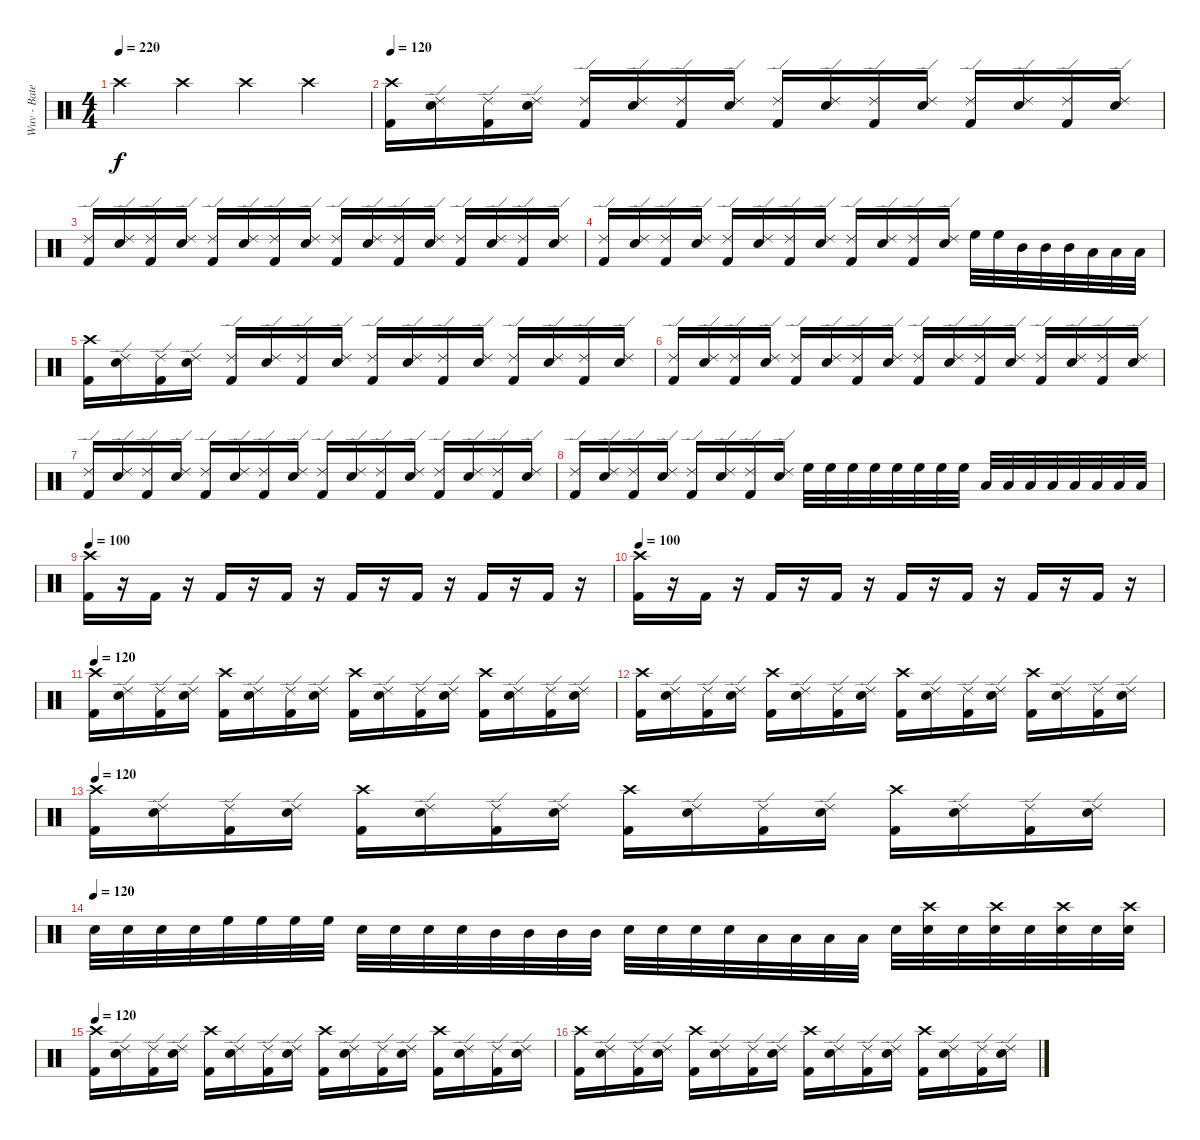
\track ("Wuv - Bateria" "Wuv - Bate") {instrument percussion}
\staff {score}
\articulation defaults
\ts (4 4)
\tempo 220
\clef neutral
\ks c "Crash high (hit)".4{dy f} "Crash high (hit)".4 "Crash high (hit)".4 "Crash high (hit)".4
|
\tempo 120
("Crash high (hit)" "Kick (hit) 2").16 ("Ride (edge) 2" "Snare (hit) 2").16 ("Ride (edge) 2" "Kick (hit) 2").16 ("Ride (edge) 2" "Snare (hit) 2").16 ("Ride (edge) 2" "Kick (hit) 2").16 ("Ride (edge) 2" "Snare (hit) 2").16 ("Ride (edge) 2" "Kick (hit) 2").16 ("Ride (edge) 2" "Snare (hit) 2").16 ("Ride (edge) 2" "Kick (hit) 2").16 ("Ride (edge) 2" "Snare (hit) 2").16 ("Ride (edge) 2" "Kick (hit) 2").16 ("Ride (edge) 2" "Snare (hit) 2").16 ("Ride (edge) 2" "Kick (hit) 2").16 ("Ride (edge) 2" "Snare (hit) 2").16 ("Ride (edge) 2" "Kick (hit) 2").16 ("Ride (edge) 2" "Snare (hit) 2").16 |
("Ride (edge) 2" "Kick (hit) 2").16 ("Ride (edge) 2" "Snare (hit) 2").16 ("Ride (edge) 2" "Kick (hit) 2").16 ("Ride (edge) 2" "Snare (hit) 2").16 ("Ride (edge) 2" "Kick (hit) 2").16 ("Ride (edge) 2" "Snare (hit) 2").16 ("Ride (edge) 2" "Kick (hit) 2").16 ("Ride (edge) 2" "Snare (hit) 2").16 ("Ride (edge) 2" "Kick (hit) 2").16 ("Ride (edge) 2" "Snare (hit) 2").16 ("Ride (edge) 2" "Kick (hit) 2").16 ("Ride (edge) 2" "Snare (hit) 2").16 ("Ride (edge) 2" "Kick (hit) 2").16 ("Ride (edge) 2" "Snare (hit) 2").16 ("Ride (edge) 2" "Kick (hit) 2").16 ("Ride (edge) 2" "Snare (hit) 2").16 |
("Ride (edge) 2" "Kick (hit) 2").16 ("Ride (edge) 2" "Snare (hit) 2").16 ("Ride (edge) 2" "Kick (hit) 2").16 ("Ride (edge) 2" "Snare (hit) 2").16 ("Ride (edge) 2" "Kick (hit) 2").16 ("Ride (edge) 2" "Snare (hit) 2").16 ("Ride (edge) 2" "Kick (hit) 2").16 ("Ride (edge) 2" "Snare (hit) 2").16 ("Ride (edge) 2" "Kick (hit) 2").16 ("Ride (edge) 2" "Snare (hit) 2").16 ("Ride (edge) 2" "Kick (hit) 2").16 ("Ride (edge) 2" "Snare (hit) 2").16 "High Floor Tom (hit)".32 "High Floor Tom (hit)".32 "Mid Tom (hit)".32 "Mid Tom (hit)".32 "Mid Tom (hit)".32 "Low Tom (hit)".32 "Low Tom (hit)".32 "Low Tom (hit)".32 |
("Crash high (hit)" "Kick (hit) 2").16 ("Ride (edge) 2" "Snare (hit) 2").16 ("Ride (edge) 2" "Kick (hit) 2").16 ("Ride (edge) 2" "Snare (hit) 2").16 ("Ride (edge) 2" "Kick (hit) 2").16 ("Ride (edge) 2" "Snare (hit) 2").16 ("Ride (edge) 2" "Kick (hit) 2").16 ("Ride (edge) 2" "Snare (hit) 2").16 ("Ride (edge) 2" "Kick (hit) 2").16 ("Ride (edge) 2" "Snare (hit) 2").16 ("Ride (edge) 2" "Kick (hit) 2").16 ("Ride (edge) 2" "Snare (hit) 2").16 ("Ride (edge) 2" "Kick (hit) 2").16 ("Ride (edge) 2" "Snare (hit) 2").16 ("Ride (edge) 2" "Kick (hit) 2").16 ("Ride (edge) 2" "Snare (hit) 2").16 |
("Ride (edge) 2" "Kick (hit) 2").16 ("Ride (edge) 2" "Snare (hit) 2").16 ("Ride (edge) 2" "Kick (hit) 2").16 ("Ride (edge) 2" "Snare (hit) 2").16 ("Ride (edge) 2" "Kick (hit) 2").16 ("Ride (edge) 2" "Snare (hit) 2").16 ("Ride (edge) 2" "Kick (hit) 2").16 ("Ride (edge) 2" "Snare (hit) 2").16 ("Ride (edge) 2" "Kick (hit) 2").16 ("Ride (edge) 2" "Snare (hit) 2").16 ("Ride (edge) 2" "Kick (hit) 2").16 ("Ride (edge) 2" "Snare (hit) 2").16 ("Ride (edge) 2" "Kick (hit) 2").16 ("Ride (edge) 2" "Snare (hit) 2").16 ("Ride (edge) 2" "Kick (hit) 2").16 ("Ride (edge) 2" "Snare (hit) 2").16 |
("Ride (edge) 2" "Kick (hit) 2").16 ("Ride (edge) 2" "Snare (hit) 2").16 ("Ride (edge) 2" "Kick (hit) 2").16 ("Ride (edge) 2" "Snare (hit) 2").16 ("Ride (edge) 2" "Kick (hit) 2").16 ("Ride (edge) 2" "Snare (hit) 2").16 ("Ride (edge) 2" "Kick (hit) 2").16 ("Ride (edge) 2" "Snare (hit) 2").16 ("Ride (edge) 2" "Kick (hit) 2").16 ("Ride (edge) 2" "Snare (hit) 2").16 ("Ride (edge) 2" "Kick (hit) 2").16 ("Ride (edge) 2" "Snare (hit) 2").16 ("Ride (edge) 2" "Kick (hit) 2").16 ("Ride (edge) 2" "Snare (hit) 2").16 ("Ride (edge) 2" "Kick (hit) 2").16 ("Ride (edge) 2" "Snare (hit) 2").16 |
("Ride (edge) 2" "Kick (hit) 2").16 ("Ride (edge) 2" "Snare (hit) 2").16 ("Ride (edge) 2" "Kick (hit) 2").16 ("Ride (edge) 2" "Snare (hit) 2").16 ("Ride (edge) 2" "Kick (hit) 2").16 ("Ride (edge) 2" "Snare (hit) 2").16 ("Ride (edge) 2" "Kick (hit) 2").16 ("Ride (edge) 2" "Snare (hit) 2").16 "High Floor Tom (hit)".32 "High Floor Tom (hit)".32 "High Floor Tom (hit)".32 "High Floor Tom (hit)".32 "High Floor Tom (hit)".32 "High Floor Tom (hit)".32 "High Floor Tom (hit)".32 "High Floor Tom (hit)".32 "Low Tom (hit)".32 "Low Tom (hit)".32 "Low Tom (hit)".32 "Low Tom (hit)".32 "Low Tom (hit)".32 "Low Tom (hit)".32 "Low Tom (hit)".32 "Low Tom (hit)".32 |
\tempo 100
("Crash high (hit)" "Kick (hit) 2").16 r.16 "Kick (hit) 2".16 r.16 "Kick (hit) 2".16 r.16 "Kick (hit) 2".16 r.16 "Kick (hit) 2".16 r.16 "Kick (hit) 2".16 r.16 "Kick (hit) 2".16 r.16 "Kick (hit) 2".16 r.16 |
\tempo 100
("Crash high (hit)" "Kick (hit) 2").16 r.16 "Kick (hit) 2".16 r.16 "Kick (hit) 2".16 r.16 "Kick (hit) 2".16 r.16 "Kick (hit) 2".16 r.16 "Kick (hit) 2".16 r.16 "Kick (hit) 2".16 r.16 "Kick (hit) 2".16 r.16 |
\tempo 120
("Crash high (hit)" "Kick (hit) 2").16 ("Ride (edge) 2" "Snare (hit) 2").16 ("Ride (edge) 2" "Kick (hit) 2").16 ("Ride (edge) 2" "Snare (hit) 2").16 ("Crash high (hit)" "Kick (hit) 2").16 ("Ride (edge) 2" "Snare (hit) 2").16 ("Ride (edge) 2" "Kick (hit) 2").16 ("Ride (edge) 2" "Snare (hit) 2").16 ("Crash high (hit)" "Kick (hit) 2").16 ("Ride (edge) 2" "Snare (hit) 2").16 ("Ride (edge) 2" "Kick (hit) 2").16 ("Ride (edge) 2" "Snare (hit) 2").16 ("Crash high (hit)" "Kick (hit) 2").16 ("Ride (edge) 2" "Snare (hit) 2").16 ("Ride (edge) 2" "Kick (hit) 2").16 ("Ride (edge) 2" "Snare (hit) 2").16 |
("Crash high (hit)" "Kick (hit) 2").16 ("Ride (edge) 2" "Snare (hit) 2").16 ("Ride (edge) 2" "Kick (hit) 2").16 ("Ride (edge) 2" "Snare (hit) 2").16 ("Crash high (hit)" "Kick (hit) 2").16 ("Ride (edge) 2" "Snare (hit) 2").16 ("Ride (edge) 2" "Kick (hit) 2").16 ("Ride (edge) 2" "Snare (hit) 2").16 ("Crash high (hit)" "Kick (hit) 2").16 ("Ride (edge) 2" "Snare (hit) 2").16 ("Ride (edge) 2" "Kick (hit) 2").16 ("Ride (edge) 2" "Snare (hit) 2").16 ("Crash high (hit)" "Kick (hit) 2").16 ("Ride (edge) 2" "Snare (hit) 2").16 ("Ride (edge) 2" "Kick (hit) 2").16 ("Ride (edge) 2" "Snare (hit) 2").16 |
\tempo 120
("Crash high (hit)" "Kick (hit) 2").16 ("Ride (edge) 2" "Snare (hit) 2").16 ("Ride (edge) 2" "Kick (hit) 2").16 ("Ride (edge) 2" "Snare (hit) 2").16 ("Crash high (hit)" "Kick (hit) 2").16 ("Ride (edge) 2" "Snare (hit) 2").16 ("Ride (edge) 2" "Kick (hit) 2").16 ("Ride (edge) 2" "Snare (hit) 2").16 ("Crash high (hit)" "Kick (hit) 2").16 ("Ride (edge) 2" "Snare (hit) 2").16 ("Ride (edge) 2" "Kick (hit) 2").16 ("Ride (edge) 2" "Snare (hit) 2").16 ("Crash high (hit)" "Kick (hit) 2").16 ("Ride (edge) 2" "Snare (hit) 2").16 ("Ride (edge) 2" "Kick (hit) 2").16 ("Ride (edge) 2" "Snare (hit) 2").16 |
\tempo (120)
"Snare (hit) 2".32 "Snare (hit) 2".32 "Snare (hit) 2".32 "Snare (hit) 2".32 "High Floor Tom (hit)".32 "High Floor Tom (hit)".32 "High Floor Tom (hit)".32 "High Floor Tom (hit)".32 "Snare (hit) 2".32 "Snare (hit) 2".32 "Snare (hit) 2".32 "Snare (hit) 2".32 "Mid Tom (hit)".32 "Mid Tom (hit)".32 "Mid Tom (hit)".32 "Mid Tom (hit)".32 "Snare (hit) 2".32 "Snare (hit) 2".32 "Snare (hit) 2".32 "Snare (hit) 2".32 "Low Tom (hit)".32 "Low Tom (hit)".32 "Low Tom (hit)".32 "Low Tom (hit)".32 "Snare (hit) 2".32 ("Crash high (hit)" "Snare (hit) 2").32 "Snare (hit) 2".32 ("Crash high (hit)" "Snare (hit) 2").32 "Snare (hit) 2".32 ("Crash high (hit)" "Snare (hit) 2").32 "Snare (hit) 2".32 ("Crash high (hit)" "Snare (hit) 2").32 |
\tempo 120
("Crash high (hit)" "Kick (hit) 2").16 ("Ride (edge) 2" "Snare (hit) 2").16 ("Ride (edge) 2" "Kick (hit) 2").16 ("Ride (edge) 2" "Snare (hit) 2").16 ("Crash high (hit)" "Kick (hit) 2").16 ("Ride (edge) 2" "Snare (hit) 2").16 ("Ride (edge) 2" "Kick (hit) 2").16 ("Ride (edge) 2" "Snare (hit) 2").16 ("Crash high (hit)" "Kick (hit) 2").16 ("Ride (edge) 2" "Snare (hit) 2").16 ("Ride (edge) 2" "Kick (hit) 2").16 ("Ride (edge) 2" "Snare (hit) 2").16 ("Crash high (hit)" "Kick (hit) 2").16 ("Ride (edge) 2" "Snare (hit) 2").16 ("Ride (edge) 2" "Kick (hit) 2").16 ("Ride (edge) 2" "Snare (hit) 2").16 |
("Crash high (hit)" "Kick (hit) 2").16 ("Ride (edge) 2" "Snare (hit) 2").16 ("Ride (edge) 2" "Kick (hit) 2").16 ("Ride (edge) 2" "Snare (hit) 2").16 ("Crash high (hit)" "Kick (hit) 2").16 ("Ride (edge) 2" "Snare (hit) 2").16 ("Ride (edge) 2" "Kick (hit) 2").16 ("Ride (edge) 2" "Snare (hit) 2").16 ("Crash high (hit)" "Kick (hit) 2").16 ("Ride (edge) 2" "Snare (hit) 2").16 ("Ride (edge) 2" "Kick (hit) 2").16 ("Ride (edge) 2" "Snare (hit) 2").16 ("Crash high (hit)" "Kick (hit) 2").16 ("Ride (edge) 2" "Snare (hit) 2").16 ("Ride (edge) 2" "Kick (hit) 2").16 ("Ride (edge) 2" "Snare (hit) 2").16
